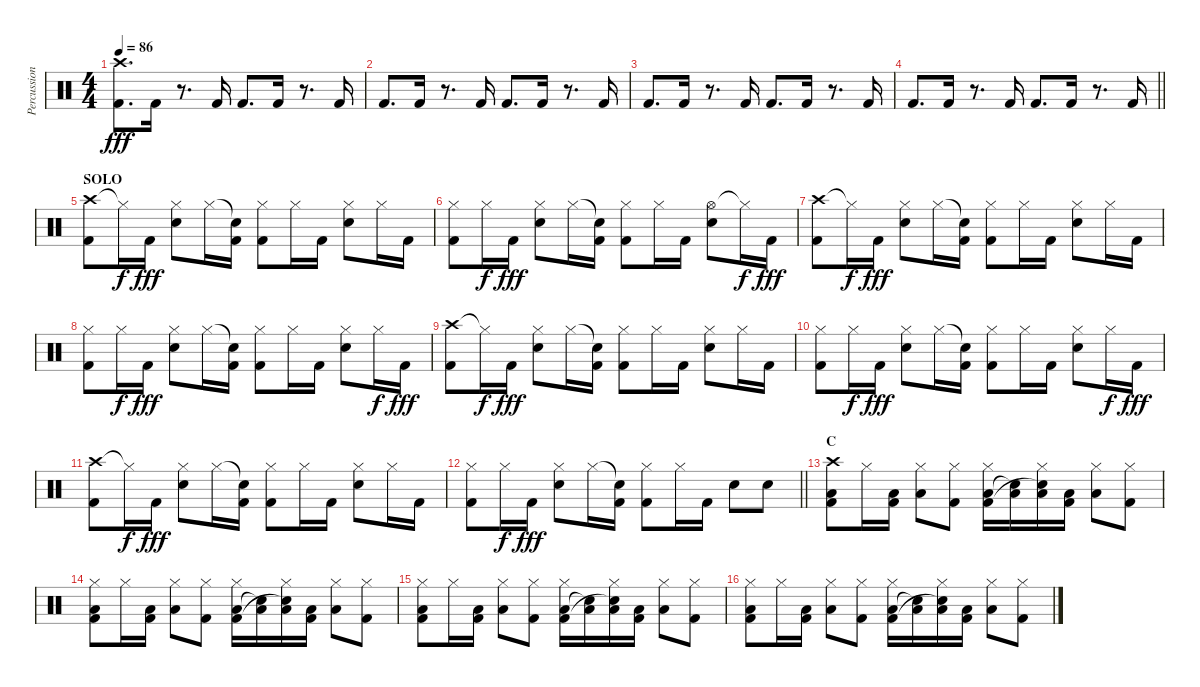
\track ("Percussion" "Percussion") {instrument percussion}
\staff {score}
\articulation defaults
\ts (4 4)
\tempo 86
\clef neutral
\ks c
("Crash high (hit)" "Kick (hit) 2").8{d dy fff} "Kick (hit) 2".16 r.8{d} "Kick (hit) 2".16 "Kick (hit) 2".8{d} "Kick (hit) 2".16 r.8{d} "Kick (hit) 2".16 |
"Kick (hit) 2".8{d} "Kick (hit) 2".16 r.8{d} "Kick (hit) 2".16 "Kick (hit) 2".8{d} "Kick (hit) 2".16 r.8{d} "Kick (hit) 2".16 |
"Kick (hit) 2".8{d} "Kick (hit) 2".16 r.8{d} "Kick (hit) 2".16 "Kick (hit) 2".8{d} "Kick (hit) 2".16 r.8{d} "Kick (hit) 2".16 |
\barLineRight lightlight "Kick (hit) 2".8{d} "Kick (hit) 2".16
r.8{d} "Kick (hit) 2".16 "Kick (hit) 2".8{d} "Kick (hit) 2".16 r.8{d} "Kick (hit) 2".16 |
\section ("" "SOLO")
("Crash high (hit)" "Kick (hit) 2").8 "Hi-Hat (closed)"{t}.16{dy f} "Kick (hit) 2".16{dy fff} ("Hi-Hat (closed)" "Electric Snare (hit)").8 "Hi-Hat (closed)".16 ("Snare (hit)"{t} "Kick (hit) 2").16 ("Hi-Hat (closed)" "Kick (hit) 2").8 "Hi-Hat (closed)".16 "Kick (hit) 2".16 ("Hi-Hat (closed)" "Electric Snare (hit)").8 "Hi-Hat (closed)".16 "Kick (hit) 2".16 |
("Hi-Hat (closed)" "Kick (hit) 2").8 "Hi-Hat (closed)".16{dy f} "Kick (hit) 2".16{dy fff} ("Hi-Hat (closed)" "Electric Snare (hit)").8 "Hi-Hat (closed)".16 ("Snare (hit)"{t} "Kick (hit) 2").16 ("Hi-Hat (closed)" "Kick (hit) 2").8 "Hi-Hat (closed)".16 "Kick (hit) 2".16 ("Hi-Hat (open)" "Electric Snare (hit)").8 "Hi-Hat (closed)"{t}.16{dy f} "Kick (hit) 2".16{dy fff} |
("Crash high (hit)" "Kick (hit) 2").8 "Hi-Hat (closed)"{t}.16{dy f} "Kick (hit) 2".16{dy fff} ("Hi-Hat (closed)" "Electric Snare (hit)").8 "Hi-Hat (closed)".16 ("Snare (hit)"{t} "Kick (hit) 2").16 ("Hi-Hat (closed)" "Kick (hit) 2").8 "Hi-Hat (closed)".16 "Kick (hit) 2".16 ("Hi-Hat (closed)" "Electric Snare (hit)").8 "Hi-Hat (closed)".16 "Kick (hit) 2".16 |
("Hi-Hat (closed)" "Kick (hit) 2").8 "Hi-Hat (closed)".16{dy f} "Kick (hit) 2".16{dy fff} ("Hi-Hat (closed)" "Electric Snare (hit)").8 "Hi-Hat (closed)".16 ("Snare (hit)"{t} "Kick (hit) 2").16 ("Hi-Hat (closed)" "Kick (hit) 2").8 "Hi-Hat (closed)".16 "Kick (hit) 2".16 ("Hi-Hat (closed)" "Electric Snare (hit)").8 "Hi-Hat (closed)".16{dy f} "Kick (hit) 2".16{dy fff} |
("Crash high (hit)" "Kick (hit) 2").8 "Hi-Hat (closed)"{t}.16{dy f} "Kick (hit) 2".16{dy fff} ("Hi-Hat (closed)" "Electric Snare (hit)").8 "Hi-Hat (closed)".16 ("Snare (hit)"{t} "Kick (hit) 2").16 ("Hi-Hat (closed)" "Kick (hit) 2").8 "Hi-Hat (closed)".16 "Kick (hit) 2".16 ("Hi-Hat (closed)" "Electric Snare (hit)").8 "Hi-Hat (closed)".16 "Kick (hit) 2".16 |
("Hi-Hat (closed)" "Kick (hit) 2").8 "Hi-Hat (closed)".16{dy f} "Kick (hit) 2".16{dy fff} ("Hi-Hat (closed)" "Electric Snare (hit)").8 "Hi-Hat (closed)".16 ("Snare (hit)"{t} "Kick (hit) 2").16 ("Hi-Hat (closed)" "Kick (hit) 2").8 "Hi-Hat (closed)".16 "Kick (hit) 2".16 ("Hi-Hat (closed)" "Electric Snare (hit)").8 "Hi-Hat (closed)".16{dy f} "Kick (hit) 2".16{dy fff} |
("Crash high (hit)" "Kick (hit) 2").8 "Hi-Hat (closed)"{t}.16{dy f} "Kick (hit) 2".16{dy fff} ("Hi-Hat (closed)" "Electric Snare (hit)").8 "Hi-Hat (closed)".16 ("Snare (hit)"{t} "Kick (hit) 2").16 ("Hi-Hat (closed)" "Kick (hit) 2").8 "Hi-Hat (closed)".16 "Kick (hit) 2".16 ("Hi-Hat (closed)" "Electric Snare (hit)").8 "Hi-Hat (closed)".16 "Kick (hit) 2".16 |
\barLineRight lightlight
("Hi-Hat (closed)" "Kick (hit) 2").8 "Hi-Hat (closed)".16{dy f} "Kick (hit) 2".16{dy fff} ("Hi-Hat (closed)" "Electric Snare (hit)").8 "Hi-Hat (closed)".16 ("Snare (hit)"{t} "Kick (hit) 2").16 ("Hi-Hat (closed)" "Kick (hit) 2").8 "Hi-Hat (closed)".16 "Kick (hit) 2".16 "Electric Snare (hit)".8 "Electric Snare (hit)".8 |
\section ("" "C")
("Crash high (hit)" "Low Tom (hit)" "Kick (hit) 2").8 "Hi-Hat (closed)".16 ("Low Tom (hit)" "Kick (hit) 2").16 ("Hi-Hat (closed)" "Low Tom (hit)").8 ("Hi-Hat (closed)" "Kick (hit) 2").8 ("Hi-Hat (closed)" "Low Tom (hit)" "Kick (hit) 2").16 ("Low Tom (hit)" "Snare (hit)"{t}).16 ("Hi-Hat (closed)" "Low Tom (hit)" "Snare (hit)"{t}).16 ("Low Tom (hit)" "Kick (hit) 2").16 ("Hi-Hat (closed)" "Low Tom (hit)").8 ("Hi-Hat (closed)" "Kick (hit) 2").8 |
("Hi-Hat (closed)" "Low Tom (hit)" "Kick (hit) 2").8 "Hi-Hat (closed)".16 ("Low Tom (hit)" "Kick (hit) 2").16 ("Hi-Hat (closed)" "Low Tom (hit)").8 ("Hi-Hat (closed)" "Kick (hit) 2").8 ("Hi-Hat (closed)" "Low Tom (hit)" "Kick (hit) 2").16 ("Low Tom (hit)" "Snare (hit)"{t}).16 ("Hi-Hat (closed)" "Low Tom (hit)" "Snare (hit)"{t}).16 ("Low Tom (hit)" "Kick (hit) 2").16 ("Hi-Hat (closed)" "Low Tom (hit)").8 ("Hi-Hat (closed)" "Kick (hit) 2").8 |
("Hi-Hat (closed)" "Low Tom (hit)" "Kick (hit) 2").8 "Hi-Hat (closed)".16 ("Low Tom (hit)" "Kick (hit) 2").16 ("Hi-Hat (closed)" "Low Tom (hit)").8 ("Hi-Hat (closed)" "Kick (hit) 2").8 ("Hi-Hat (closed)" "Low Tom (hit)" "Kick (hit) 2").16 ("Low Tom (hit)" "Snare (hit)"{t}).16 ("Hi-Hat (closed)" "Low Tom (hit)" "Snare (hit)"{t}).16 ("Low Tom (hit)" "Kick (hit) 2").16 ("Hi-Hat (closed)" "Low Tom (hit)").8 ("Hi-Hat (closed)" "Kick (hit) 2").8 |
("Hi-Hat (closed)" "Low Tom (hit)" "Kick (hit) 2").8 "Hi-Hat (closed)".16 ("Low Tom (hit)" "Kick (hit) 2").16 ("Hi-Hat (closed)" "Low Tom (hit)").8 ("Hi-Hat (closed)" "Kick (hit) 2").8 ("Hi-Hat (closed)" "Low Tom (hit)" "Kick (hit) 2").16 ("Low Tom (hit)" "Snare (hit)"{t}).16 ("Hi-Hat (closed)" "Low Tom (hit)" "Snare (hit)"{t}).16 ("Low Tom (hit)" "Kick (hit) 2").16 ("Hi-Hat (closed)" "Low Tom (hit)").8 ("Hi-Hat (closed)" "Kick (hit) 2").8
